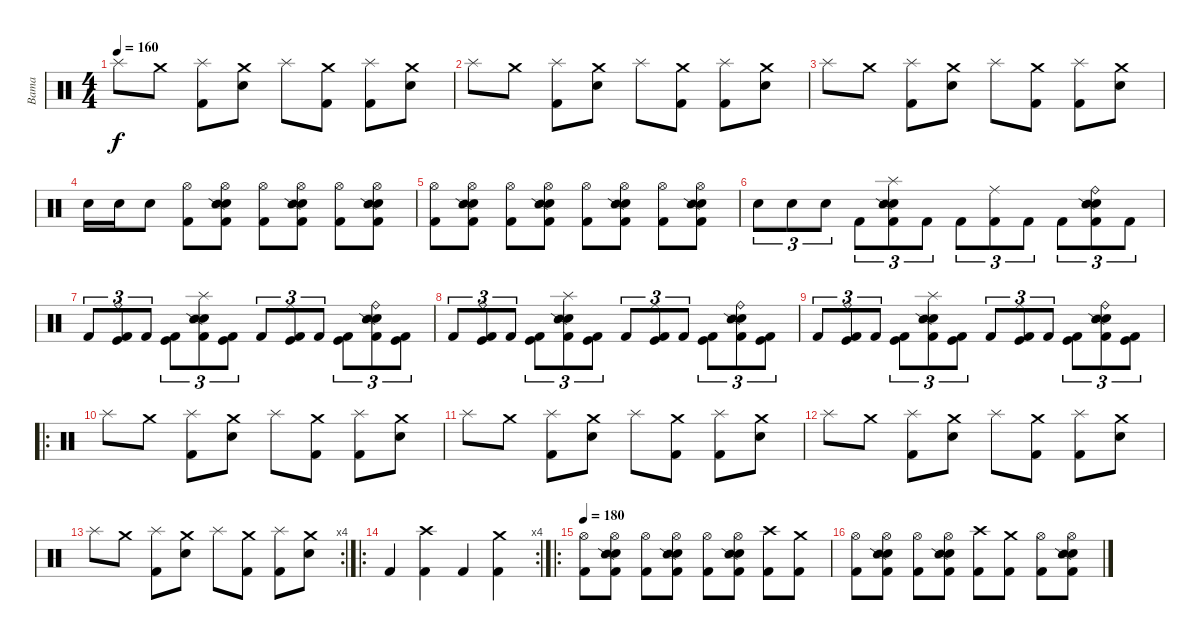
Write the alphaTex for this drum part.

\track ("Bama" "Bama") {instrument percussion}
\staff {score}
\articulation defaults
\ts (4 4)
\tempo 160
\clef neutral
\ks c "Splash (hit)".8{dy f} "Crash medium (hit)".8
("Splash (hit)" "Kick (hit) 2").8 ("Crash medium (hit)" "Electric Snare (hit)").8 "Splash (hit)".8 ("Crash medium (hit)" "Kick (hit) 2").8 ("Splash (hit)" "Kick (hit) 2").8 ("Crash medium (hit)" "Electric Snare (hit)").8 |
"Splash (hit)".8 "Crash medium (hit)".8 ("Splash (hit)" "Kick (hit) 2").8 ("Crash medium (hit)" "Electric Snare (hit)").8 "Splash (hit)".8 ("Crash medium (hit)" "Kick (hit) 2").8 ("Splash (hit)" "Kick (hit) 2").8 ("Crash medium (hit)" "Electric Snare (hit)").8 |
"Splash (hit)".8 "Crash medium (hit)".8 ("Splash (hit)" "Kick (hit) 2").8 ("Crash medium (hit)" "Electric Snare (hit)").8 "Splash (hit)".8 ("Crash medium (hit)" "Kick (hit) 2").8 ("Splash (hit)" "Kick (hit) 2").8 ("Crash medium (hit)" "Electric Snare (hit)").8 |
"Electric Snare (hit)".16 "Electric Snare (hit)".16 "Electric Snare (hit)".8 ("Hi-Hat (open)" "Kick (hit) 2").8 ("Hi-Hat (open)" "Electric Snare (hit)" "Snare (side stick) 2" "Kick (hit) 2").8 ("Hi-Hat (open)" "Kick (hit) 2").8 ("Hi-Hat (open)" "Electric Snare (hit)" "Snare (side stick) 2" "Kick (hit) 2").8 ("Hi-Hat (open)" "Kick (hit) 2").8 ("Hi-Hat (open)" "Electric Snare (hit)" "Snare (side stick) 2" "Kick (hit) 2").8 |
("Hi-Hat (open)" "Kick (hit) 2").8 ("Hi-Hat (open)" "Electric Snare (hit)" "Snare (side stick) 2" "Kick (hit) 2").8 ("Hi-Hat (open)" "Kick (hit) 2").8 ("Hi-Hat (open)" "Electric Snare (hit)" "Snare (side stick) 2" "Kick (hit) 2").8 ("Hi-Hat (open)" "Kick (hit) 2").8 ("Hi-Hat (open)" "Electric Snare (hit)" "Snare (side stick) 2" "Kick (hit) 2").8 ("Hi-Hat (open)" "Kick (hit) 2").8 ("Hi-Hat (open)" "Electric Snare (hit)" "Snare (side stick) 2" "Kick (hit) 2").8 |
"Electric Snare (hit)".8{tu (3 2)} "Electric Snare (hit)".8{tu (3 2)} "Electric Snare (hit)".8{tu (3 2)} "Kick (hit) 2".8{tu (3 2)} ("Splash (hit)" "Electric Snare (hit)" "Snare (side stick) 2" "Kick (hit) 2").8{tu (3 2)} "Kick (hit) 2".8{tu (3 2)} "Kick (hit) 2".8{tu (3 2)} ("Ride (middle)" "Kick (hit) 2").8{tu (3 2)} "Kick (hit) 2".8{tu (3 2)} "Kick (hit) 2".8{tu (3 2)} ("Ride (bell)" "Electric Snare (hit)" "Snare (side stick) 2" "Kick (hit) 2").8{tu (3 2)} "Kick (hit) 2".8{tu (3 2)} |
"Kick (hit) 2".8{tu (3 2)} ("Ride (bell)" "Kick (hit)" "Kick (hit) 2").8{tu (3 2)} "Kick (hit) 2".8{tu (3 2)} ("Kick (hit)" "Kick (hit) 2").8{tu (3 2)} ("Splash (hit)" "Electric Snare (hit)" "Snare (side stick) 2" "Kick (hit) 2").8{tu (3 2)} ("Kick (hit)" "Kick (hit) 2").8{tu (3 2)} "Kick (hit) 2".8{tu (3 2)} ("Ride (middle)" "Kick (hit)" "Kick (hit) 2").8{tu (3 2)} "Kick (hit) 2".8{tu (3 2)} ("Kick (hit)" "Kick (hit) 2").8{tu (3 2)} ("Ride (bell)" "Electric Snare (hit)" "Snare (side stick) 2" "Kick (hit) 2").8{tu (3 2)} ("Kick (hit)" "Kick (hit) 2").8{tu (3 2)} |
"Kick (hit) 2".8{tu (3 2)} ("Ride (bell)" "Kick (hit)" "Kick (hit) 2").8{tu (3 2)} "Kick (hit) 2".8{tu (3 2)} ("Kick (hit)" "Kick (hit) 2").8{tu (3 2)} ("Splash (hit)" "Electric Snare (hit)" "Snare (side stick) 2" "Kick (hit) 2").8{tu (3 2)} ("Kick (hit)" "Kick (hit) 2").8{tu (3 2)} "Kick (hit) 2".8{tu (3 2)} ("Ride (middle)" "Kick (hit)" "Kick (hit) 2").8{tu (3 2)} "Kick (hit) 2".8{tu (3 2)} ("Kick (hit)" "Kick (hit) 2").8{tu (3 2)} ("Ride (bell)" "Electric Snare (hit)" "Snare (side stick) 2" "Kick (hit) 2").8{tu (3 2)} ("Kick (hit)" "Kick (hit) 2").8{tu (3 2)} |
"Kick (hit) 2".8{tu (3 2)} ("Ride (bell)" "Kick (hit)" "Kick (hit) 2").8{tu (3 2)} "Kick (hit) 2".8{tu (3 2)} ("Kick (hit)" "Kick (hit) 2").8{tu (3 2)} ("Splash (hit)" "Electric Snare (hit)" "Snare (side stick) 2" "Kick (hit) 2").8{tu (3 2)} ("Kick (hit)" "Kick (hit) 2").8{tu (3 2)} "Kick (hit) 2".8{tu (3 2)} ("Ride (middle)" "Kick (hit)" "Kick (hit) 2").8{tu (3 2)} "Kick (hit) 2".8{tu (3 2)} ("Kick (hit)" "Kick (hit) 2").8{tu (3 2)} ("Ride (bell)" "Electric Snare (hit)" "Snare (side stick) 2" "Kick (hit) 2").8{tu (3 2)} ("Kick (hit)" "Kick (hit) 2").8{tu (3 2)} |
\ro "Splash (hit)".8 "Crash medium (hit)".8
("Splash (hit)" "Kick (hit) 2").8 ("Crash medium (hit)" "Electric Snare (hit)").8 "Splash (hit)".8 ("Crash medium (hit)" "Kick (hit) 2").8 ("Splash (hit)" "Kick (hit) 2").8 ("Crash medium (hit)" "Electric Snare (hit)").8 |
"Splash (hit)".8 "Crash medium (hit)".8 ("Splash (hit)" "Kick (hit) 2").8 ("Crash medium (hit)" "Electric Snare (hit)").8 "Splash (hit)".8 ("Crash medium (hit)" "Kick (hit) 2").8 ("Splash (hit)" "Kick (hit) 2").8 ("Crash medium (hit)" "Electric Snare (hit)").8 |
"Splash (hit)".8 "Crash medium (hit)".8 ("Splash (hit)" "Kick (hit) 2").8 ("Crash medium (hit)" "Electric Snare (hit)").8 "Splash (hit)".8 ("Crash medium (hit)" "Kick (hit) 2").8 ("Splash (hit)" "Kick (hit) 2").8 ("Crash medium (hit)" "Electric Snare (hit)").8 |
\rc 4 "Splash (hit)".8 "Crash medium (hit)".8
("Splash (hit)" "Kick (hit) 2").8 ("Crash medium (hit)" "Electric Snare (hit)").8 "Splash (hit)".8 ("Crash medium (hit)" "Kick (hit) 2").8 ("Splash (hit)" "Kick (hit) 2").8 ("Crash medium (hit)" "Electric Snare (hit)").8 |
\ro
\rc 4 "Kick (hit) 2".4
("Crash high (hit)" "Kick (hit) 2").4 "Kick (hit) 2".4 ("Crash medium (hit)" "Kick (hit) 2").4 |
\ro
\tempo 180
("Hi-Hat (open)" "Kick (hit) 2").8 ("Hi-Hat (open)" "Electric Snare (hit)" "Snare (side stick) 2" "Kick (hit) 2").8 ("Hi-Hat (open)" "Kick (hit) 2").8 ("Hi-Hat (open)" "Electric Snare (hit)" "Snare (side stick) 2" "Kick (hit) 2").8 ("Hi-Hat (open)" "Kick (hit) 2").8 ("Hi-Hat (open)" "Electric Snare (hit)" "Snare (side stick) 2" "Kick (hit) 2").8 ("Crash high (hit)" "Kick (hit) 2").8 ("Crash medium (hit)" "Kick (hit) 2").8 |
("Hi-Hat (open)" "Kick (hit) 2").8 ("Hi-Hat (open)" "Electric Snare (hit)" "Snare (side stick) 2" "Kick (hit) 2").8 ("Hi-Hat (open)" "Kick (hit) 2").8 ("Hi-Hat (open)" "Electric Snare (hit)" "Snare (side stick) 2" "Kick (hit) 2").8 ("Crash high (hit)" "Kick (hit) 2").8 ("Crash medium (hit)" "Kick (hit) 2").8 ("Hi-Hat (open)" "Kick (hit) 2").8 ("Hi-Hat (open)" "Electric Snare (hit)" "Snare (side stick) 2" "Kick (hit) 2").8
